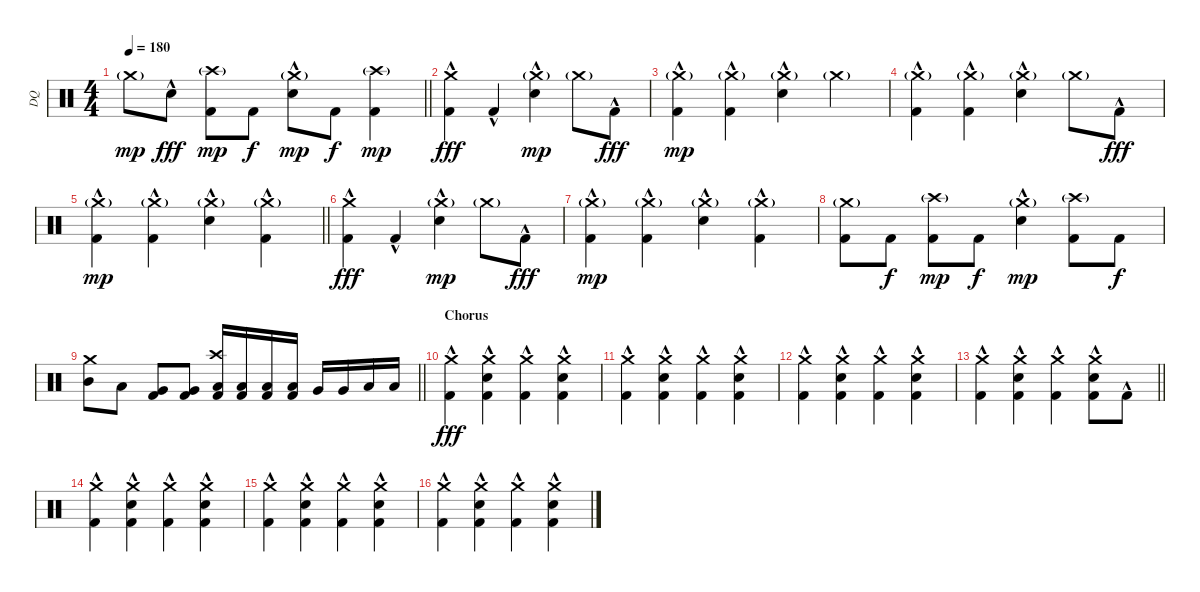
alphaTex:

\track ("DQ" "DQ") {instrument percussion}
\staff {score}
\articulation defaults
\ts (4 4)
\tempo 180
\clef neutral
\barLineRight lightlight
\ks c "Crash medium (hit)"{g}.8{dy mp} "Snare (hit) 2"{hac}.8{dy fff}
("Kick (hit) 2" "Crash high (hit)"{g}).8{dy mp} "Kick (hit) 2".8{dy f} ("Snare (hit) 2"{hac} "Crash medium (hit)"{g}).8{dy mp} "Kick (hit) 2".8{dy f} ("Kick (hit) 2" "Crash high (hit)"{g}).4{dy mp} |
\section ("" "")
("Kick (hit) 2"{hac} "Crash medium (hit)").4{dy fff} "Kick (hit) 2"{hac}.4 ("Snare (hit) 2"{hac} "Crash medium (hit)"{g}).4{dy mp} "Crash medium (hit)"{g}.8 "Kick (hit) 2"{hac}.8{dy fff} |
("Kick (hit) 2"{hac} "Crash medium (hit)"{g}).4{dy mp} ("Kick (hit) 2"{hac} "Crash medium (hit)"{g}).4 ("Snare (hit) 2"{hac} "Crash medium (hit)"{g}).4 "Crash medium (hit)"{g}.4 |
("Kick (hit) 2"{hac} "Crash medium (hit)"{g}).4 ("Kick (hit) 2"{hac} "Crash medium (hit)"{g}).4 ("Snare (hit) 2"{hac} "Crash medium (hit)"{g}).4 "Crash medium (hit)"{g}.8 "Kick (hit) 2"{hac}.8{dy fff} |
\barLineRight lightlight
("Kick (hit) 2"{hac} "Crash medium (hit)"{g}).4{dy mp} ("Kick (hit) 2"{hac} "Crash medium (hit)"{g}).4 ("Snare (hit) 2"{hac} "Crash medium (hit)"{g}).4 ("Kick (hit) 2"{hac} "Crash medium (hit)"{g}).4 |
\section ("" "")
("Kick (hit) 2"{hac} "Crash medium (hit)").4{dy fff} "Kick (hit) 2"{hac}.4 ("Snare (hit) 2"{hac} "Crash medium (hit)"{g}).4{dy mp} "Crash medium (hit)"{g}.8 "Kick (hit) 2"{hac}.8{dy fff} |
("Kick (hit) 2"{hac} "Crash medium (hit)"{g}).4{dy mp} ("Kick (hit) 2"{hac} "Crash medium (hit)"{g}).4 ("Snare (hit) 2"{hac} "Crash medium (hit)"{g}).4 ("Kick (hit) 2"{hac} "Crash medium (hit)"{g}).4 |
("Kick (hit) 2" "Crash medium (hit)"{g}).8 "Kick (hit) 2".8{dy f} ("Kick (hit) 2" "Crash high (hit)"{g}).8{dy mp} "Kick (hit) 2".8{dy f} ("Snare (hit) 2"{hac} "Crash medium (hit)"{g}).4{dy mp} ("Kick (hit) 2" "Crash high (hit)"{g}).8 "Kick (hit) 2".8{dy f} |
\barLineRight lightlight
("Mid Tom (hit)" "Crash medium (hit)").8 "Low Tom (hit)".8 ("Kick (hit) 2" "Very Low Tom (hit)").8 ("Kick (hit) 2" "Very Low Tom (hit)").8 ("Kick (hit) 2" "Low Tom (hit)" "Crash high (hit)").16 ("Kick (hit) 2" "Low Tom (hit)").16 ("Kick (hit) 2" "Low Tom (hit)").16 ("Kick (hit) 2" "Low Tom (hit)").16 "Very Low Tom (hit)".16 "Very Low Tom (hit)".16 "Low Floor Tom (hit)".16 "Low Floor Tom (hit)".16 |
\section ("" "Chorus")
("Kick (hit) 2"{hac} "Crash medium (hit)").4{dy fff} ("Kick (hit) 2"{hac} "Snare (hit) 2"{hac} "Crash medium (hit)").4 ("Kick (hit) 2"{hac} "Crash medium (hit)").4 ("Kick (hit) 2"{hac} "Snare (hit) 2"{hac} "Crash medium (hit)").4 |
("Kick (hit) 2"{hac} "Crash medium (hit)").4 ("Kick (hit) 2"{hac} "Snare (hit) 2"{hac} "Crash medium (hit)").4 ("Kick (hit) 2"{hac} "Crash medium (hit)").4 ("Kick (hit) 2"{hac} "Snare (hit) 2"{hac} "Crash medium (hit)").4 |
("Kick (hit) 2"{hac} "Crash medium (hit)").4 ("Kick (hit) 2"{hac} "Snare (hit) 2"{hac} "Crash medium (hit)").4 ("Kick (hit) 2"{hac} "Crash medium (hit)").4 ("Kick (hit) 2"{hac} "Snare (hit) 2"{hac} "Crash medium (hit)").4 |
\barLineRight lightlight
("Kick (hit) 2"{hac} "Crash medium (hit)").4 ("Kick (hit) 2"{hac} "Snare (hit) 2"{hac} "Crash medium (hit)").4 ("Kick (hit) 2"{hac} "Crash medium (hit)").4 ("Kick (hit) 2"{hac} "Snare (hit) 2"{hac} "Crash medium (hit)").8 "Kick (hit) 2"{hac}.8 |
\section ("" "")
("Kick (hit) 2"{hac} "Crash medium (hit)").4 ("Kick (hit) 2"{hac} "Snare (hit) 2"{hac} "Crash medium (hit)").4 ("Kick (hit) 2"{hac} "Crash medium (hit)").4 ("Kick (hit) 2"{hac} "Snare (hit) 2"{hac} "Crash medium (hit)").4 |
("Kick (hit) 2"{hac} "Crash medium (hit)").4 ("Kick (hit) 2"{hac} "Snare (hit) 2"{hac} "Crash medium (hit)").4 ("Kick (hit) 2"{hac} "Crash medium (hit)").4 ("Kick (hit) 2"{hac} "Snare (hit) 2"{hac} "Crash medium (hit)").4 |
("Kick (hit) 2"{hac} "Crash medium (hit)").4 ("Kick (hit) 2"{hac} "Snare (hit) 2"{hac} "Crash medium (hit)").4 ("Kick (hit) 2"{hac} "Crash medium (hit)").4 ("Kick (hit) 2"{hac} "Snare (hit) 2"{hac} "Crash medium (hit)").4
